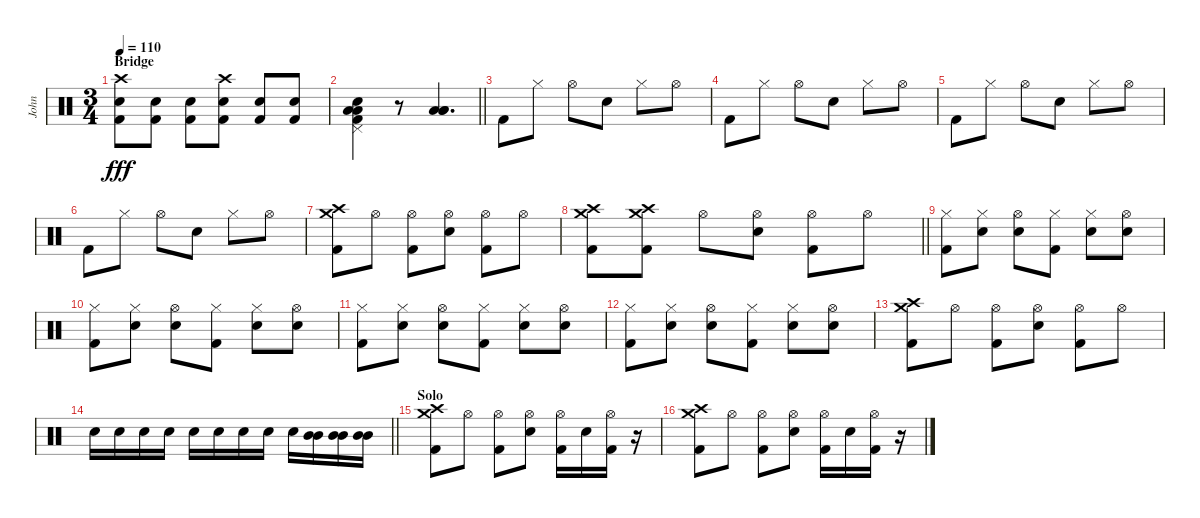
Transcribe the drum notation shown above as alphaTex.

\track ("John" "John") {instrument percussion}
\staff {score}
\articulation defaults
\ts (3 4)
\section ("" "Bridge")
\tempo 110
\clef neutral
\ks c
("Crash high (hit)" "Electric Snare (hit)" "Kick (hit) 2").8{dy fff} ("Electric Snare (hit)" "Kick (hit) 2").8 ("Electric Snare (hit)" "Kick (hit) 2").8 ("Crash high (hit)" "Electric Snare (hit)" "Kick (hit) 2").8 ("Electric Snare (hit)" "Kick (hit) 2").8 ("Electric Snare (hit)" "Kick (hit) 2").8 |
\barLineRight lightlight
("Pedal Hi-Hat (hit)" "Kick (hit) 2" "Low Floor Tom (hit)" "Low Floor Tom (hit)" "Electric Snare (hit)").4 r.8 ("Low Floor Tom (hit)" "Low Floor Tom (hit)" "Low Floor Tom (hit)").4{d} |
"Kick (hit) 2".8 "Hi-Hat (closed)".8 "Hi-Hat (open)".8 "Electric Snare (hit)".8 "Hi-Hat (closed)".8 "Hi-Hat (open)".8 |
"Kick (hit) 2".8 "Hi-Hat (closed)".8 "Hi-Hat (open)".8 "Electric Snare (hit)".8 "Hi-Hat (closed)".8 "Hi-Hat (open)".8 |
"Kick (hit) 2".8 "Hi-Hat (closed)".8 "Hi-Hat (open)".8 "Electric Snare (hit)".8 "Hi-Hat (closed)".8 "Hi-Hat (open)".8 |
"Kick (hit) 2".8 "Hi-Hat (closed)".8 "Hi-Hat (open)".8 "Electric Snare (hit)".8 "Hi-Hat (closed)".8 "Hi-Hat (open)".8 |
("Crash medium (hit)" "Crash high (hit)" "Kick (hit) 2").8 "Hi-Hat (open)".8 ("Hi-Hat (open)" "Kick (hit) 2").8 ("Hi-Hat (open)" "Electric Snare (hit)").8 ("Hi-Hat (open)" "Kick (hit) 2").8 "Hi-Hat (open)".8 |
\barLineRight lightlight
("Crash medium (hit)" "Crash high (hit)" "Kick (hit) 2").8 ("Crash medium (hit)" "Crash high (hit)" "Kick (hit) 2").8 "Hi-Hat (open)".8 ("Hi-Hat (open)" "Electric Snare (hit)").8 ("Hi-Hat (open)" "Kick (hit) 2").8 "Hi-Hat (open)".8 |
("Hi-Hat (closed)" "Kick (hit) 2").8 ("Hi-Hat (closed)" "Electric Snare (hit)").8 ("Hi-Hat (open)" "Electric Snare (hit)").8 ("Hi-Hat (closed)" "Kick (hit) 2").8 ("Hi-Hat (closed)" "Electric Snare (hit)").8 ("Hi-Hat (open)" "Electric Snare (hit)").8 |
("Hi-Hat (closed)" "Kick (hit) 2").8 ("Hi-Hat (closed)" "Electric Snare (hit)").8 ("Hi-Hat (open)" "Electric Snare (hit)").8 ("Hi-Hat (closed)" "Kick (hit) 2").8 ("Hi-Hat (closed)" "Electric Snare (hit)").8 ("Hi-Hat (open)" "Electric Snare (hit)").8 |
("Hi-Hat (closed)" "Kick (hit) 2").8 ("Hi-Hat (closed)" "Electric Snare (hit)").8 ("Hi-Hat (open)" "Electric Snare (hit)").8 ("Hi-Hat (closed)" "Kick (hit) 2").8 ("Hi-Hat (closed)" "Electric Snare (hit)").8 ("Hi-Hat (open)" "Electric Snare (hit)").8 |
("Hi-Hat (closed)" "Kick (hit) 2").8 ("Hi-Hat (closed)" "Electric Snare (hit)").8 ("Hi-Hat (open)" "Electric Snare (hit)").8 ("Hi-Hat (closed)" "Kick (hit) 2").8 ("Hi-Hat (closed)" "Electric Snare (hit)").8 ("Hi-Hat (open)" "Electric Snare (hit)").8 |
("Crash medium (hit)" "Crash high (hit)" "Kick (hit) 2").8 "Hi-Hat (open)".8 ("Hi-Hat (open)" "Kick (hit) 2").8 ("Hi-Hat (open)" "Electric Snare (hit)").8 ("Hi-Hat (open)" "Kick (hit) 2").8 "Hi-Hat (open)".8 |
\barLineRight lightlight "Electric Snare (hit)".16 "Electric Snare (hit)".16 "Electric Snare (hit)".16 "Electric Snare (hit)".16 "Electric Snare (hit)".16 "Electric Snare (hit)".16 "Electric Snare (hit)".16 "Electric Snare (hit)".16 "Electric Snare (hit)".16
("Mid Tom (hit)" "Mid Tom (hit)").16 ("Mid Tom (hit)" "Mid Tom (hit)").16 ("Mid Tom (hit)" "Mid Tom (hit)").16 |
\section ("" "Solo")
("Crash medium (hit)" "Crash high (hit)" "Kick (hit) 2").8 "Hi-Hat (open)".8 ("Hi-Hat (open)" "Kick (hit) 2").8 ("Hi-Hat (open)" "Electric Snare (hit)").8 ("Hi-Hat (open)" "Kick (hit) 2").16 "Electric Snare (hit)".16 ("Hi-Hat (open)" "Kick (hit) 2").16 r.16 |
("Crash medium (hit)" "Crash high (hit)" "Kick (hit) 2").8 "Hi-Hat (open)".8 ("Hi-Hat (open)" "Kick (hit) 2").8 ("Hi-Hat (open)" "Electric Snare (hit)").8 ("Hi-Hat (open)" "Kick (hit) 2").16 "Electric Snare (hit)".16 ("Hi-Hat (open)" "Kick (hit) 2").16 r.16
